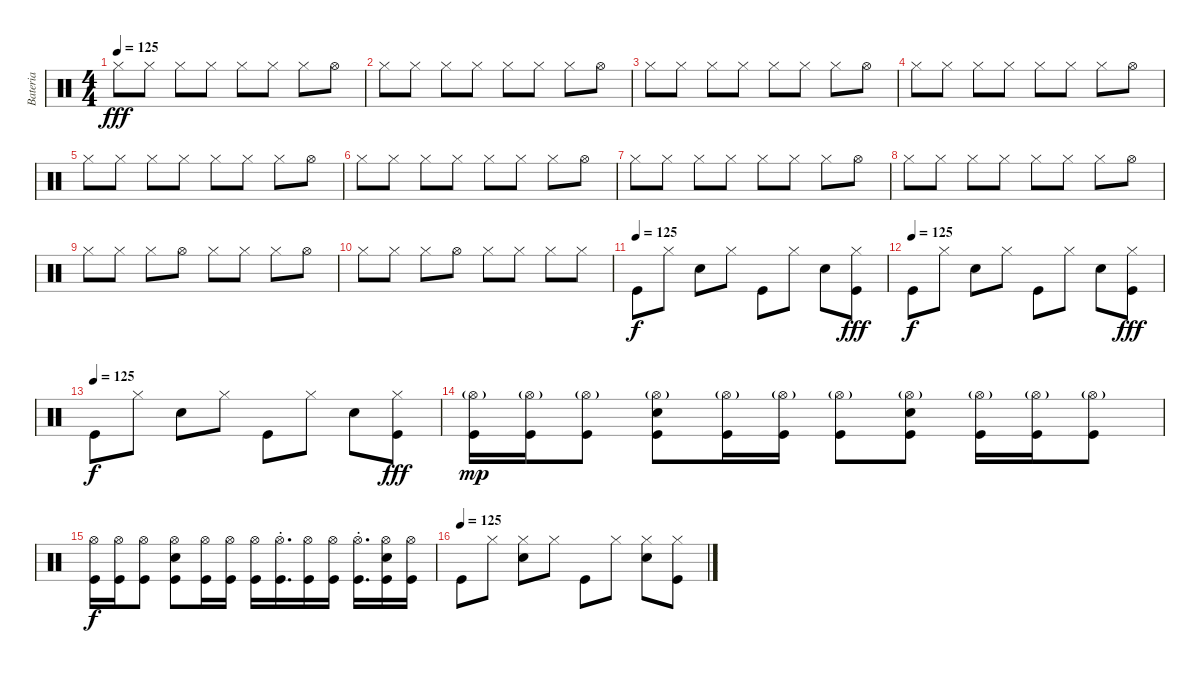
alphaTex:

\track ("Bateria" "Bateria") {instrument percussion}
\staff {score}
\articulation defaults
\ts (4 4)
\tempo 125
\clef neutral
\ks c "Hi-Hat (closed)".8{dy fff} "Hi-Hat (closed)".8 "Hi-Hat (closed)".8 "Hi-Hat (closed)".8 "Hi-Hat (closed)".8 "Hi-Hat (closed)".8 "Hi-Hat (closed)".8 "Hi-Hat (open)".8
|
"Hi-Hat (closed)".8 "Hi-Hat (closed)".8 "Hi-Hat (closed)".8 "Hi-Hat (closed)".8 "Hi-Hat (closed)".8 "Hi-Hat (closed)".8 "Hi-Hat (closed)".8 "Hi-Hat (open)".8 |
"Hi-Hat (closed)".8 "Hi-Hat (closed)".8 "Hi-Hat (closed)".8 "Hi-Hat (closed)".8 "Hi-Hat (closed)".8 "Hi-Hat (closed)".8 "Hi-Hat (closed)".8 "Hi-Hat (open)".8 |
"Hi-Hat (closed)".8 "Hi-Hat (closed)".8 "Hi-Hat (closed)".8 "Hi-Hat (closed)".8 "Hi-Hat (closed)".8 "Hi-Hat (closed)".8 "Hi-Hat (closed)".8 "Hi-Hat (open)".8 |
"Hi-Hat (closed)".8 "Hi-Hat (closed)".8 "Hi-Hat (closed)".8 "Hi-Hat (closed)".8 "Hi-Hat (closed)".8 "Hi-Hat (closed)".8 "Hi-Hat (closed)".8 "Hi-Hat (open)".8 |
"Hi-Hat (closed)".8 "Hi-Hat (closed)".8 "Hi-Hat (closed)".8 "Hi-Hat (closed)".8 "Hi-Hat (closed)".8 "Hi-Hat (closed)".8 "Hi-Hat (closed)".8 "Hi-Hat (open)".8 |
"Hi-Hat (closed)".8 "Hi-Hat (closed)".8 "Hi-Hat (closed)".8 "Hi-Hat (closed)".8 "Hi-Hat (closed)".8 "Hi-Hat (closed)".8 "Hi-Hat (closed)".8 "Hi-Hat (open)".8 |
"Hi-Hat (closed)".8 "Hi-Hat (closed)".8 "Hi-Hat (closed)".8 "Hi-Hat (closed)".8 "Hi-Hat (closed)".8 "Hi-Hat (closed)".8 "Hi-Hat (closed)".8 "Hi-Hat (open)".8 |
"Hi-Hat (closed)".8 "Hi-Hat (closed)".8 "Hi-Hat (closed)".8 "Hi-Hat (open)".8 "Hi-Hat (closed)".8 "Hi-Hat (closed)".8 "Hi-Hat (closed)".8 "Hi-Hat (open)".8 |
"Hi-Hat (closed)".8 "Hi-Hat (closed)".8 "Hi-Hat (closed)".8 "Hi-Hat (open)".8 "Hi-Hat (closed)".8 "Hi-Hat (closed)".8 "Hi-Hat (closed)".8 "Hi-Hat (closed)".8 |
\tempo (125)
"Kick (hit)".8{dy f} "Hi-Hat (closed)".8 "Snare (hit) 2".8 "Hi-Hat (closed)".8 "Kick (hit)".8 "Hi-Hat (closed)".8 "Snare (hit) 2".8 ("Hi-Hat (closed)" "Kick (hit)").8{dy fff} |
\tempo (125)
"Kick (hit)".8{dy f} "Hi-Hat (closed)".8 "Snare (hit) 2".8 "Hi-Hat (closed)".8 "Kick (hit)".8 "Hi-Hat (closed)".8 "Snare (hit) 2".8 ("Hi-Hat (closed)" "Kick (hit)").8{dy fff} |
\tempo (125)
"Kick (hit)".8{dy f} "Hi-Hat (closed)".8 "Snare (hit) 2".8 "Hi-Hat (closed)".8 "Kick (hit)".8 "Hi-Hat (closed)".8 "Snare (hit) 2".8 ("Hi-Hat (closed)" "Kick (hit)").8{dy fff} |
("Hi-Hat (open)"{g} "Kick (hit)").16{dy mp} ("Hi-Hat (open)"{g} "Kick (hit)").16 ("Hi-Hat (open)"{g} "Kick (hit)").8 ("Hi-Hat (open)"{g} "Snare (hit) 2" "Kick (hit)").8 ("Hi-Hat (open)"{g} "Kick (hit)").16 ("Hi-Hat (open)"{g} "Kick (hit)").16 ("Hi-Hat (open)"{g} "Kick (hit)").8 ("Hi-Hat (open)"{g} "Snare (hit) 2" "Kick (hit)").8 ("Hi-Hat (open)"{g} "Kick (hit)").16 ("Hi-Hat (open)"{g} "Kick (hit)").16 ("Hi-Hat (open)"{g} "Kick (hit)").8 |
("Hi-Hat (open)" "Kick (hit)").16{dy f} ("Hi-Hat (open)" "Kick (hit)").16 ("Hi-Hat (open)" "Kick (hit)").8 ("Hi-Hat (open)" "Snare (hit) 2" "Kick (hit)").8 ("Hi-Hat (open)" "Kick (hit)").16 ("Hi-Hat (open)" "Kick (hit)").16 ("Hi-Hat (open)" "Kick (hit)").16 ("Hi-Hat (open)" "Kick (hit)"{st}).16{d} ("Hi-Hat (open)" "Kick (hit)").16 ("Hi-Hat (open)" "Kick (hit)").16 ("Hi-Hat (open)" "Kick (hit)"{st}).16{d} ("Hi-Hat (open)" "Snare (hit) 2" "Kick (hit)").16 ("Hi-Hat (open)" "Kick (hit)").16 |
\tempo (125)
"Kick (hit)".8 "Hi-Hat (closed)".8 ("Snare (hit) 2" "Hi-Hat (closed)").8 "Hi-Hat (closed)".8 "Kick (hit)".8 "Hi-Hat (closed)".8 ("Snare (hit) 2" "Hi-Hat (closed)").8 ("Hi-Hat (closed)" "Kick (hit)").8
